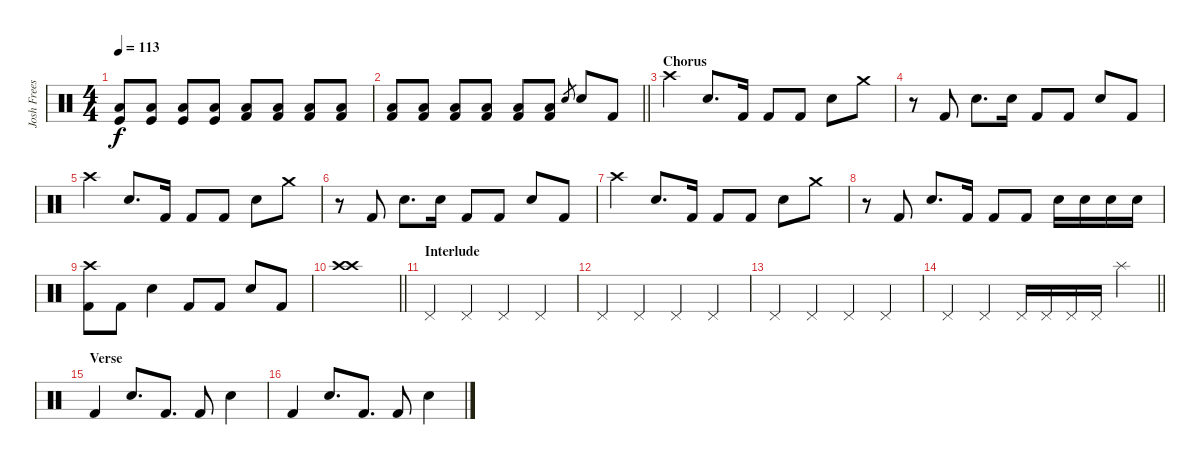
\track ("Josh Freese (Studio Drummer)" "Josh Frees") {instrument percussion}
\staff {score}
\articulation defaults
\ts (4 4)
\tempo 113
\clef neutral
\ks c
("Kick (hit)" "Low Floor Tom (hit)").8{dy f} ("Kick (hit)" "Low Floor Tom (hit)").8 ("Kick (hit)" "Low Floor Tom (hit)").8 ("Kick (hit)" "Low Floor Tom (hit)").8 ("Kick (hit) 2" "Low Floor Tom (hit)").8 ("Kick (hit) 2" "Low Floor Tom (hit)").8 ("Kick (hit) 2" "Low Floor Tom (hit)").8 ("Kick (hit) 2" "Low Floor Tom (hit)").8 |
\barLineRight lightlight
("Kick (hit) 2" "Low Floor Tom (hit)").8 ("Kick (hit) 2" "Low Floor Tom (hit)").8 ("Kick (hit) 2" "Low Floor Tom (hit)").8 ("Kick (hit) 2" "Low Floor Tom (hit)").8 ("Kick (hit) 2" "Low Floor Tom (hit)").8 ("Kick (hit) 2" "Low Floor Tom (hit)").8 "Electric Snare (hit)".8{gr} "Electric Snare (hit)".8 "Kick (hit) 2".8 |
\section ("" "Chorus")
"Crash high (hit)".4 "Electric Snare (hit)".8{d} "Kick (hit) 2".16 "Kick (hit) 2".8 "Kick (hit) 2".8 "Electric Snare (hit)".8 "Crash medium (hit)".8 |
r.8 "Kick (hit) 2".8 "Electric Snare (hit)".8{d} "Electric Snare (hit)".16 "Kick (hit) 2".8 "Kick (hit) 2".8 "Electric Snare (hit)".8 "Kick (hit) 2".8 |
"Crash high (hit)".4 "Electric Snare (hit)".8{d} "Kick (hit) 2".16 "Kick (hit) 2".8 "Kick (hit) 2".8 "Electric Snare (hit)".8 "Crash medium (hit)".8 |
r.8 "Kick (hit) 2".8 "Electric Snare (hit)".8{d} "Electric Snare (hit)".16 "Kick (hit) 2".8 "Kick (hit) 2".8 "Electric Snare (hit)".8 "Kick (hit) 2".8 |
"Crash high (hit)".4 "Electric Snare (hit)".8{d} "Kick (hit) 2".16 "Kick (hit) 2".8 "Kick (hit) 2".8 "Electric Snare (hit)".8 "Crash medium (hit)".8 |
r.8 "Kick (hit) 2".8 "Electric Snare (hit)".8{d} "Kick (hit) 2".16 "Kick (hit) 2".8 "Kick (hit) 2".8 "Electric Snare (hit)".16 "Electric Snare (hit)".16 "Electric Snare (hit)".16 "Electric Snare (hit)".16 |
("Crash high (hit)" "Kick (hit) 2").8 "Kick (hit) 2".8 "Electric Snare (hit)".4 "Kick (hit) 2".8 "Kick (hit) 2".8 "Electric Snare (hit)".8 "Kick (hit) 2".8 |
\barLineRight lightlight
("Crash high (hit)" "Crash high (hit)").1 |
\section ("" "Interlude")
"Pedal Hi-Hat (hit)".4 "Pedal Hi-Hat (hit)".4 "Pedal Hi-Hat (hit)".4 "Pedal Hi-Hat (hit)".4 |
"Pedal Hi-Hat (hit)".4 "Pedal Hi-Hat (hit)".4 "Pedal Hi-Hat (hit)".4 "Pedal Hi-Hat (hit)".4 |
"Pedal Hi-Hat (hit)".4 "Pedal Hi-Hat (hit)".4 "Pedal Hi-Hat (hit)".4 "Pedal Hi-Hat (hit)".4 |
\barLineRight lightlight "Pedal Hi-Hat (hit)".4 "Pedal Hi-Hat (hit)".4 "Pedal Hi-Hat (hit)".16 "Pedal Hi-Hat (hit)".16 "Pedal Hi-Hat (hit)".16 "Pedal Hi-Hat (hit)".16 "Splash (hit)".4
|
\section ("" "Verse")
"Kick (hit) 2".4 "Electric Snare (hit)".8{d} "Kick (hit) 2".8{d} "Kick (hit) 2".8 "Electric Snare (hit)".4 |
"Kick (hit) 2".4 "Electric Snare (hit)".8{d} "Kick (hit) 2".8{d} "Kick (hit) 2".8 "Electric Snare (hit)".4
